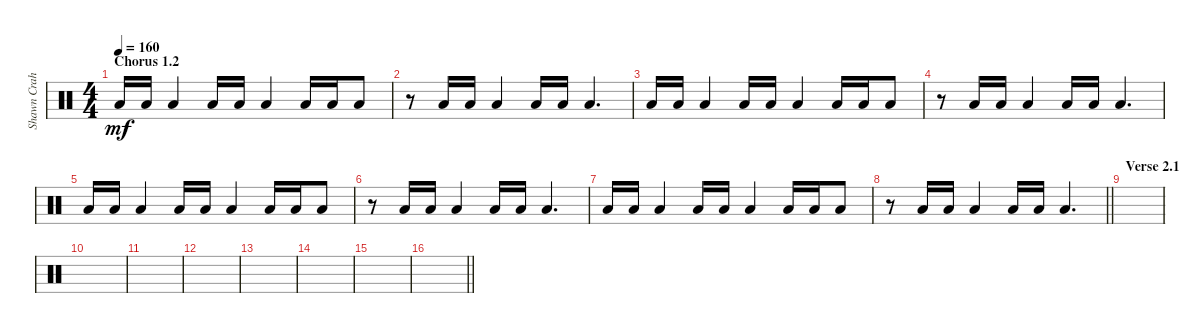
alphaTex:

\track ("Shawn Crahan" "Shawn Crah") {instrument percussion}
\staff {score}
\articulation defaults
\ts (4 4)
\section ("" "Chorus 1.2")
\tempo 160
\clef neutral
\ks c "Low Floor Tom (hit)".16{dy mf} "Low Floor Tom (hit)".16 "Low Floor Tom (hit)".4 "Low Floor Tom (hit)".16 "Low Floor Tom (hit)".16 "Low Floor Tom (hit)".4 "Low Floor Tom (hit)".16 "Low Floor Tom (hit)".16 "Low Floor Tom (hit)".8
|
r.8 "Low Floor Tom (hit)".16 "Low Floor Tom (hit)".16 "Low Floor Tom (hit)".4 "Low Floor Tom (hit)".16 "Low Floor Tom (hit)".16 "Low Floor Tom (hit)".4{d} |
"Low Floor Tom (hit)".16 "Low Floor Tom (hit)".16 "Low Floor Tom (hit)".4 "Low Floor Tom (hit)".16 "Low Floor Tom (hit)".16 "Low Floor Tom (hit)".4 "Low Floor Tom (hit)".16 "Low Floor Tom (hit)".16 "Low Floor Tom (hit)".8 |
r.8 "Low Floor Tom (hit)".16 "Low Floor Tom (hit)".16 "Low Floor Tom (hit)".4 "Low Floor Tom (hit)".16 "Low Floor Tom (hit)".16 "Low Floor Tom (hit)".4{d} |
"Low Floor Tom (hit)".16 "Low Floor Tom (hit)".16 "Low Floor Tom (hit)".4 "Low Floor Tom (hit)".16 "Low Floor Tom (hit)".16 "Low Floor Tom (hit)".4 "Low Floor Tom (hit)".16 "Low Floor Tom (hit)".16 "Low Floor Tom (hit)".8 |
r.8 "Low Floor Tom (hit)".16 "Low Floor Tom (hit)".16 "Low Floor Tom (hit)".4 "Low Floor Tom (hit)".16 "Low Floor Tom (hit)".16 "Low Floor Tom (hit)".4{d} |
"Low Floor Tom (hit)".16 "Low Floor Tom (hit)".16 "Low Floor Tom (hit)".4 "Low Floor Tom (hit)".16 "Low Floor Tom (hit)".16 "Low Floor Tom (hit)".4 "Low Floor Tom (hit)".16 "Low Floor Tom (hit)".16 "Low Floor Tom (hit)".8 |
\barLineRight lightlight
r.8 "Low Floor Tom (hit)".16 "Low Floor Tom (hit)".16 "Low Floor Tom (hit)".4 "Low Floor Tom (hit)".16 "Low Floor Tom (hit)".16 "Low Floor Tom (hit)".4{d} |
\section ("" "Verse 2.1")
|
|
|
|
|
|
|
\barLineRight lightlight
